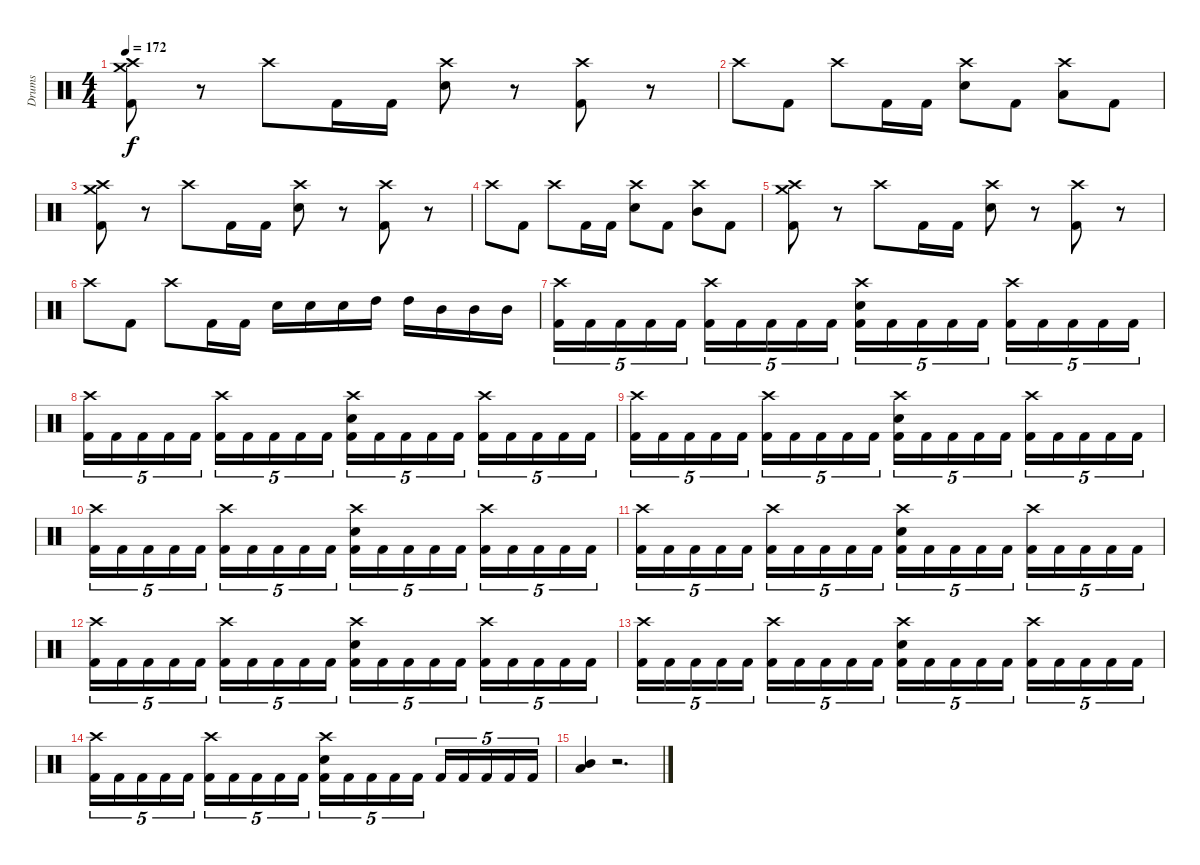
\track ("Drums" "Drums") {instrument percussion}
\staff {score}
\articulation defaults
\ts (4 4)
\tempo 172
\clef neutral
\ks c
("Crash medium (hit)" "Crash high (hit)" "Kick (hit) 2").8{dy f} r.8 "Crash high (hit)".8 "Kick (hit) 2".16 "Kick (hit) 2".16 ("Crash high (hit)" "Snare (hit) 2").8 r.8 ("Crash high (hit)" "Kick (hit) 2").8 r.8 |
"Crash high (hit)".8 "Kick (hit) 2".8 "Crash high (hit)".8 "Kick (hit) 2".16 "Kick (hit) 2".16 ("Crash high (hit)" "Snare (hit) 2").8 "Kick (hit) 2".8 ("Crash high (hit)" "Low Tom (hit)").8 "Kick (hit) 2".8 |
("Crash medium (hit)" "Crash high (hit)" "Kick (hit) 2").8 r.8 "Crash high (hit)".8 "Kick (hit) 2".16 "Kick (hit) 2".16 ("Crash high (hit)" "Snare (hit) 2").8 r.8 ("Crash high (hit)" "Kick (hit) 2").8 r.8 |
"Crash high (hit)".8 "Kick (hit) 2".8 "Crash high (hit)".8 "Kick (hit) 2".16 "Kick (hit) 2".16 ("Crash high (hit)" "Snare (hit) 2").8 "Kick (hit) 2".8 ("Crash high (hit)" "Mid Tom (hit)").8 "Kick (hit) 2".8 |
("Crash medium (hit)" "Crash high (hit)" "Kick (hit) 2").8 r.8 "Crash high (hit)".8 "Kick (hit) 2".16 "Kick (hit) 2".16 ("Crash high (hit)" "Snare (hit) 2").8 r.8 ("Crash high (hit)" "Kick (hit) 2").8 r.8 |
"Crash high (hit)".8 "Kick (hit) 2".8 "Crash high (hit)".8 "Kick (hit) 2".16 "Kick (hit) 2".16 "Snare (hit) 2".16 "Snare (hit) 2".16 "Snare (hit) 2".16 "High Tom (hit)".16 "High Tom (hit)".16 "Mid Tom (hit)".16 "Mid Tom (hit)".16 "Mid Tom (hit)".16 |
("Crash high (hit)" "Kick (hit) 2").16{tu (5 4)} "Kick (hit) 2".16{tu (5 4)} "Kick (hit) 2".16{tu (5 4)} "Kick (hit) 2".16{tu (5 4)} "Kick (hit) 2".16{tu (5 4)} ("Crash high (hit)" "Kick (hit) 2").16{tu (5 4)} "Kick (hit) 2".16{tu (5 4)} "Kick (hit) 2".16{tu (5 4)} "Kick (hit) 2".16{tu (5 4)} "Kick (hit) 2".16{tu (5 4)} ("Crash high (hit)" "Snare (hit) 2" "Kick (hit) 2").16{tu (5 4)} "Kick (hit) 2".16{tu (5 4)} "Kick (hit) 2".16{tu (5 4)} "Kick (hit) 2".16{tu (5 4)} "Kick (hit) 2".16{tu (5 4)} ("Crash high (hit)" "Kick (hit) 2").16{tu (5 4)} "Kick (hit) 2".16{tu (5 4)} "Kick (hit) 2".16{tu (5 4)} "Kick (hit) 2".16{tu (5 4)} "Kick (hit) 2".16{tu (5 4)} |
("Crash high (hit)" "Kick (hit) 2").16{tu (5 4)} "Kick (hit) 2".16{tu (5 4)} "Kick (hit) 2".16{tu (5 4)} "Kick (hit) 2".16{tu (5 4)} "Kick (hit) 2".16{tu (5 4)} ("Crash high (hit)" "Kick (hit) 2").16{tu (5 4)} "Kick (hit) 2".16{tu (5 4)} "Kick (hit) 2".16{tu (5 4)} "Kick (hit) 2".16{tu (5 4)} "Kick (hit) 2".16{tu (5 4)} ("Crash high (hit)" "Snare (hit) 2" "Kick (hit) 2").16{tu (5 4)} "Kick (hit) 2".16{tu (5 4)} "Kick (hit) 2".16{tu (5 4)} "Kick (hit) 2".16{tu (5 4)} "Kick (hit) 2".16{tu (5 4)} ("Crash high (hit)" "Kick (hit) 2").16{tu (5 4)} "Kick (hit) 2".16{tu (5 4)} "Kick (hit) 2".16{tu (5 4)} "Kick (hit) 2".16{tu (5 4)} "Kick (hit) 2".16{tu (5 4)} |
("Crash high (hit)" "Kick (hit) 2").16{tu (5 4)} "Kick (hit) 2".16{tu (5 4)} "Kick (hit) 2".16{tu (5 4)} "Kick (hit) 2".16{tu (5 4)} "Kick (hit) 2".16{tu (5 4)} ("Crash high (hit)" "Kick (hit) 2").16{tu (5 4)} "Kick (hit) 2".16{tu (5 4)} "Kick (hit) 2".16{tu (5 4)} "Kick (hit) 2".16{tu (5 4)} "Kick (hit) 2".16{tu (5 4)} ("Crash high (hit)" "Snare (hit) 2" "Kick (hit) 2").16{tu (5 4)} "Kick (hit) 2".16{tu (5 4)} "Kick (hit) 2".16{tu (5 4)} "Kick (hit) 2".16{tu (5 4)} "Kick (hit) 2".16{tu (5 4)} ("Crash high (hit)" "Kick (hit) 2").16{tu (5 4)} "Kick (hit) 2".16{tu (5 4)} "Kick (hit) 2".16{tu (5 4)} "Kick (hit) 2".16{tu (5 4)} "Kick (hit) 2".16{tu (5 4)} |
("Crash high (hit)" "Kick (hit) 2").16{tu (5 4)} "Kick (hit) 2".16{tu (5 4)} "Kick (hit) 2".16{tu (5 4)} "Kick (hit) 2".16{tu (5 4)} "Kick (hit) 2".16{tu (5 4)} ("Crash high (hit)" "Kick (hit) 2").16{tu (5 4)} "Kick (hit) 2".16{tu (5 4)} "Kick (hit) 2".16{tu (5 4)} "Kick (hit) 2".16{tu (5 4)} "Kick (hit) 2".16{tu (5 4)} ("Crash high (hit)" "Snare (hit) 2" "Kick (hit) 2").16{tu (5 4)} "Kick (hit) 2".16{tu (5 4)} "Kick (hit) 2".16{tu (5 4)} "Kick (hit) 2".16{tu (5 4)} "Kick (hit) 2".16{tu (5 4)} ("Crash high (hit)" "Kick (hit) 2").16{tu (5 4)} "Kick (hit) 2".16{tu (5 4)} "Kick (hit) 2".16{tu (5 4)} "Kick (hit) 2".16{tu (5 4)} "Kick (hit) 2".16{tu (5 4)} |
("Crash high (hit)" "Kick (hit) 2").16{tu (5 4)} "Kick (hit) 2".16{tu (5 4)} "Kick (hit) 2".16{tu (5 4)} "Kick (hit) 2".16{tu (5 4)} "Kick (hit) 2".16{tu (5 4)} ("Crash high (hit)" "Kick (hit) 2").16{tu (5 4)} "Kick (hit) 2".16{tu (5 4)} "Kick (hit) 2".16{tu (5 4)} "Kick (hit) 2".16{tu (5 4)} "Kick (hit) 2".16{tu (5 4)} ("Crash high (hit)" "Snare (hit) 2" "Kick (hit) 2").16{tu (5 4)} "Kick (hit) 2".16{tu (5 4)} "Kick (hit) 2".16{tu (5 4)} "Kick (hit) 2".16{tu (5 4)} "Kick (hit) 2".16{tu (5 4)} ("Crash high (hit)" "Kick (hit) 2").16{tu (5 4)} "Kick (hit) 2".16{tu (5 4)} "Kick (hit) 2".16{tu (5 4)} "Kick (hit) 2".16{tu (5 4)} "Kick (hit) 2".16{tu (5 4)} |
("Crash high (hit)" "Kick (hit) 2").16{tu (5 4)} "Kick (hit) 2".16{tu (5 4)} "Kick (hit) 2".16{tu (5 4)} "Kick (hit) 2".16{tu (5 4)} "Kick (hit) 2".16{tu (5 4)} ("Crash high (hit)" "Kick (hit) 2").16{tu (5 4)} "Kick (hit) 2".16{tu (5 4)} "Kick (hit) 2".16{tu (5 4)} "Kick (hit) 2".16{tu (5 4)} "Kick (hit) 2".16{tu (5 4)} ("Crash high (hit)" "Snare (hit) 2" "Kick (hit) 2").16{tu (5 4)} "Kick (hit) 2".16{tu (5 4)} "Kick (hit) 2".16{tu (5 4)} "Kick (hit) 2".16{tu (5 4)} "Kick (hit) 2".16{tu (5 4)} ("Crash high (hit)" "Kick (hit) 2").16{tu (5 4)} "Kick (hit) 2".16{tu (5 4)} "Kick (hit) 2".16{tu (5 4)} "Kick (hit) 2".16{tu (5 4)} "Kick (hit) 2".16{tu (5 4)} |
("Crash high (hit)" "Kick (hit) 2").16{tu (5 4)} "Kick (hit) 2".16{tu (5 4)} "Kick (hit) 2".16{tu (5 4)} "Kick (hit) 2".16{tu (5 4)} "Kick (hit) 2".16{tu (5 4)} ("Crash high (hit)" "Kick (hit) 2").16{tu (5 4)} "Kick (hit) 2".16{tu (5 4)} "Kick (hit) 2".16{tu (5 4)} "Kick (hit) 2".16{tu (5 4)} "Kick (hit) 2".16{tu (5 4)} ("Crash high (hit)" "Snare (hit) 2" "Kick (hit) 2").16{tu (5 4)} "Kick (hit) 2".16{tu (5 4)} "Kick (hit) 2".16{tu (5 4)} "Kick (hit) 2".16{tu (5 4)} "Kick (hit) 2".16{tu (5 4)} ("Crash high (hit)" "Kick (hit) 2").16{tu (5 4)} "Kick (hit) 2".16{tu (5 4)} "Kick (hit) 2".16{tu (5 4)} "Kick (hit) 2".16{tu (5 4)} "Kick (hit) 2".16{tu (5 4)} |
("Crash high (hit)" "Kick (hit) 2").16{tu (5 4)} "Kick (hit) 2".16{tu (5 4)} "Kick (hit) 2".16{tu (5 4)} "Kick (hit) 2".16{tu (5 4)} "Kick (hit) 2".16{tu (5 4)} ("Crash high (hit)" "Kick (hit) 2").16{tu (5 4)} "Kick (hit) 2".16{tu (5 4)} "Kick (hit) 2".16{tu (5 4)} "Kick (hit) 2".16{tu (5 4)} "Kick (hit) 2".16{tu (5 4)} ("Crash high (hit)" "Snare (hit) 2" "Kick (hit) 2").16{tu (5 4)} "Kick (hit) 2".16{tu (5 4)} "Kick (hit) 2".16{tu (5 4)} "Kick (hit) 2".16{tu (5 4)} "Kick (hit) 2".16{tu (5 4)} "Kick (hit) 2".16{tu (5 4)} "Kick (hit) 2".16{tu (5 4)} "Kick (hit) 2".16{tu (5 4)} "Kick (hit) 2".16{tu (5 4)} "Kick (hit) 2".16{tu (5 4)} |
("Low Tom (hit)" "Mid Tom (hit)").4 r.2{d}
